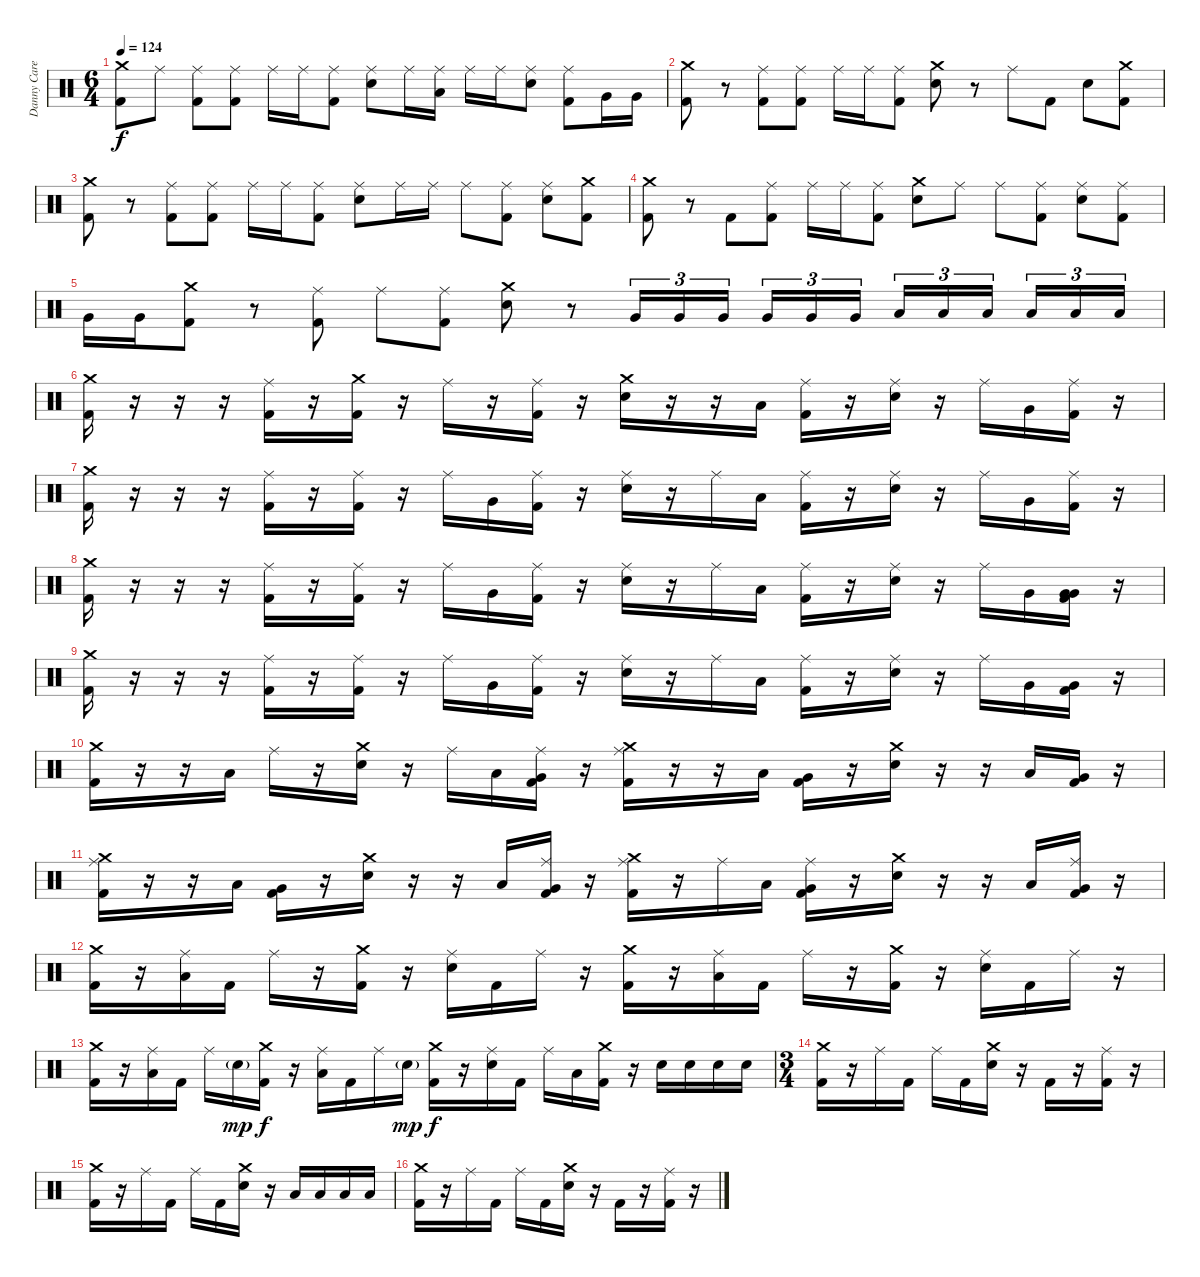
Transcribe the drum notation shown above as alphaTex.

\track ("Danny Carey" "Danny Care") {instrument percussion}
\staff {score}
\articulation defaults
\ts (6 4)
\tempo 124
\clef neutral
\ks c
("Crash medium (hit)" "Kick (hit) 2").8{dy f} "Ride (middle)".8 ("Ride (middle)" "Kick (hit) 2").8 ("Ride (middle)" "Kick (hit) 2").8 "Ride (middle)".16 "Ride (middle)".16 ("Ride (middle)" "Kick (hit) 2").8 ("Ride (middle)" "Electric Snare (hit)").8 "Ride (middle)".16 ("Ride (middle)" "Low Floor Tom (hit)").16 "Ride (middle)".16 "Ride (middle)".16 ("Ride (middle)" "Electric Snare (hit)").8 ("Ride (middle)" "Kick (hit) 2").8 "Very Low Tom (hit)".16 "Very Low Tom (hit)".16 |
("Crash medium (hit)" "Kick (hit) 2").8 r.8 ("Ride (middle)" "Kick (hit) 2").8 ("Ride (middle)" "Kick (hit) 2").8 "Ride (middle)".16 "Ride (middle)".16 ("Ride (middle)" "Kick (hit) 2").8 ("Crash medium (hit)" "Electric Snare (hit)").8 r.8 "Ride (middle)".8 "Kick (hit) 2".8 "Electric Snare (hit)".8 ("Crash medium (hit)" "Kick (hit) 2").8 |
("Crash medium (hit)" "Kick (hit) 2").8 r.8 ("Ride (middle)" "Kick (hit) 2").8 ("Ride (middle)" "Kick (hit) 2").8 "Ride (middle)".16 "Ride (middle)".16 ("Ride (middle)" "Kick (hit) 2").8 ("Ride (middle)" "Electric Snare (hit)").8 "Ride (middle)".16 "Ride (middle)".16 "Ride (middle)".8 ("Ride (middle)" "Kick (hit) 2").8 ("Ride (middle)" "Electric Snare (hit)").8 ("Crash medium (hit)" "Kick (hit) 2").8 |
("Crash medium (hit)" "Kick (hit) 2").8 r.8 "Kick (hit) 2".8 ("Ride (middle)" "Kick (hit) 2").8 "Ride (middle)".16 "Ride (middle)".16 ("Ride (middle)" "Kick (hit) 2").8 ("Crash medium (hit)" "Electric Snare (hit)").8 "Ride (middle)".8 "Ride (middle)".8 ("Ride (middle)" "Kick (hit) 2").8 ("Ride (middle)" "Electric Snare (hit)").8 ("Ride (middle)" "Kick (hit) 2").8 |
"Very Low Tom (hit)".16 "Very Low Tom (hit)".16 ("Crash medium (hit)" "Kick (hit) 2").8 r.8 ("Ride (middle)" "Kick (hit) 2").8 "Ride (middle)".8 ("Ride (middle)" "Kick (hit) 2").8 ("Crash medium (hit)" "Electric Snare (hit)").8 r.8 "Very Low Tom (hit)".16{tu (3 2)} "Very Low Tom (hit)".16{tu (3 2)} "Very Low Tom (hit)".16{tu (3 2)} "Very Low Tom (hit)".16{tu (3 2)} "Very Low Tom (hit)".16{tu (3 2)} "Very Low Tom (hit)".16{tu (3 2)} "Low Floor Tom (hit)".16{tu (3 2)} "Low Floor Tom (hit)".16{tu (3 2)} "Low Floor Tom (hit)".16{tu (3 2)} "Low Floor Tom (hit)".16{tu (3 2)} "Low Floor Tom (hit)".16{tu (3 2)} "Low Floor Tom (hit)".16{tu (3 2)} |
("Crash medium (hit)" "Kick (hit) 2").16 r.16 r.16 r.16 ("Ride (middle)" "Kick (hit) 2").16 r.16 ("Crash medium (hit)" "Kick (hit) 2").16 r.16 "Ride (middle)".16 r.16 ("Ride (middle)" "Kick (hit) 2").16 r.16 ("Crash medium (hit)" "Electric Snare (hit)").16 r.16 r.16 "Low Tom (hit)".16 ("Ride (middle)" "Kick (hit) 2").16 r.16 ("Ride (middle)" "Electric Snare (hit)").16 r.16 "Ride (middle)".16 "Very Low Tom (hit)".16 ("Ride (middle)" "Kick (hit) 2").16 r.16 |
("Crash medium (hit)" "Kick (hit) 2").16 r.16 r.16 r.16 ("Ride (middle)" "Kick (hit) 2").16 r.16 ("Ride (middle)" "Kick (hit) 2").16 r.16 "Ride (middle)".16 "Very Low Tom (hit)".16 ("Ride (middle)" "Kick (hit) 2").16 r.16 ("Ride (middle)" "Electric Snare (hit)").16 r.16 "Ride (middle)".16 "Low Tom (hit)".16 ("Ride (middle)" "Kick (hit) 2").16 r.16 ("Ride (middle)" "Electric Snare (hit)").16 r.16 "Ride (middle)".16 "Very Low Tom (hit)".16 ("Ride (middle)" "Kick (hit) 2").16 r.16 |
("Crash medium (hit)" "Kick (hit) 2").16 r.16 r.16 r.16 ("Ride (middle)" "Kick (hit) 2").16 r.16 ("Ride (middle)" "Kick (hit) 2").16 r.16 "Ride (middle)".16 "Very Low Tom (hit)".16 ("Ride (middle)" "Kick (hit) 2").16 r.16 ("Ride (middle)" "Electric Snare (hit)").16 r.16 "Ride (middle)".16 "Low Tom (hit)".16 ("Ride (middle)" "Kick (hit) 2").16 r.16 ("Ride (middle)" "Electric Snare (hit)").16 r.16 "Ride (middle)".16 "Very Low Tom (hit)".16 ("Very Low Tom (hit)" "Very Low Tom (hit)" "Kick (hit) 2").16 r.16 |
("Crash medium (hit)" "Kick (hit) 2").16 r.16 r.16 r.16 ("Ride (middle)" "Kick (hit) 2").16 r.16 ("Ride (middle)" "Kick (hit) 2").16 r.16 "Ride (middle)".16 "Very Low Tom (hit)".16 ("Ride (middle)" "Kick (hit) 2").16 r.16 ("Ride (middle)" "Electric Snare (hit)").16 r.16 "Ride (middle)".16 "Low Tom (hit)".16 ("Ride (middle)" "Kick (hit) 2").16 r.16 ("Ride (middle)" "Electric Snare (hit)").16 r.16 "Ride (middle)".16 "Very Low Tom (hit)".16 ("Very Low Tom (hit)" "Kick (hit) 2").16 r.16 |
("Crash medium (hit)" "Kick (hit) 2").16 r.16 r.16 "Low Tom (hit)".16 "Ride (middle)".16 r.16 ("Crash medium (hit)" "Electric Snare (hit)").16 r.16 "Ride (middle)".16 "Low Tom (hit)".16 ("Ride (middle)" "Very Low Tom (hit)" "Kick (hit) 2").16 r.16 ("Crash medium (hit)" "Ride (middle)" "Kick (hit) 2").16 r.16 r.16 "Low Tom (hit)".16 ("Very Low Tom (hit)" "Kick (hit) 2").16 r.16 ("Crash medium (hit)" "Electric Snare (hit)").16 r.16 r.16 "Low Tom (hit)".16 ("Very Low Tom (hit)" "Kick (hit) 2").16 r.16 |
("Crash medium (hit)" "Ride (middle)" "Kick (hit) 2").16 r.16 r.16 "Low Tom (hit)".16 ("Very Low Tom (hit)" "Kick (hit) 2").16 r.16 ("Crash medium (hit)" "Electric Snare (hit)").16 r.16 r.16 "Low Tom (hit)".16 ("Ride (middle)" "Very Low Tom (hit)" "Kick (hit) 2").16 r.16 ("Crash medium (hit)" "Ride (middle)" "Kick (hit) 2").16 r.16 "Ride (middle)".16 "Low Tom (hit)".16 ("Ride (middle)" "Very Low Tom (hit)" "Kick (hit) 2").16 r.16 ("Crash medium (hit)" "Electric Snare (hit)").16 r.16 r.16 "Low Tom (hit)".16 ("Ride (middle)" "Very Low Tom (hit)" "Kick (hit) 2").16 r.16 |
("Crash medium (hit)" "Kick (hit) 2").16 r.16 ("Ride (middle)" "Low Tom (hit)").16 "Kick (hit) 2".16 "Ride (middle)".16 r.16 ("Crash medium (hit)" "Kick (hit) 2").16 r.16 ("Ride (middle)" "Electric Snare (hit)").16 "Kick (hit) 2".16 "Ride (middle)".16 r.16 ("Crash medium (hit)" "Kick (hit) 2").16 r.16 ("Ride (middle)" "Low Tom (hit)").16 "Kick (hit) 2".16 "Ride (middle)".16 r.16 ("Crash medium (hit)" "Kick (hit) 2").16 r.16 ("Ride (middle)" "Electric Snare (hit)").16 "Kick (hit) 2".16 "Ride (middle)".16 r.16 |
("Crash medium (hit)" "Kick (hit) 2").16 r.16 ("Ride (middle)" "Low Tom (hit)").16 "Kick (hit) 2".16 "Ride (middle)".16 "Electric Snare (hit)"{g}.16{dy mp} ("Crash medium (hit)" "Kick (hit) 2").16{dy f} r.16 ("Ride (middle)" "Low Tom (hit)").16 "Kick (hit) 2".16 "Ride (middle)".16 "Electric Snare (hit)"{g}.16{dy mp} ("Crash medium (hit)" "Kick (hit) 2").16{dy f} r.16 ("Ride (middle)" "Electric Snare (hit)").16 "Kick (hit) 2".16 "Ride (middle)".16 "Low Tom (hit)".16 ("Crash medium (hit)" "Kick (hit) 2").16 r.16 "Electric Snare (hit)".16 "Electric Snare (hit)".16 "Electric Snare (hit)".16 "Electric Snare (hit)".16 |
\ts (3 4)
("Crash medium (hit)" "Kick (hit) 2").16 r.16 "Ride (middle)".16 "Kick (hit) 2".16 "Ride (middle)".16 "Kick (hit) 2".16 ("Crash medium (hit)" "Electric Snare (hit)").16 r.16 "Kick (hit) 2".16 r.16 ("Ride (middle)" "Kick (hit) 2").16 r.16 |
("Crash medium (hit)" "Kick (hit) 2").16 r.16 "Ride (middle)".16 "Kick (hit) 2".16 "Ride (middle)".16 "Kick (hit) 2".16 ("Crash medium (hit)" "Electric Snare (hit)").16 r.16 "Low Tom (hit)".16 "Low Tom (hit)".16 "Low Tom (hit)".16 "Low Tom (hit)".16 |
("Crash medium (hit)" "Kick (hit) 2").16 r.16 "Ride (middle)".16 "Kick (hit) 2".16 "Ride (middle)".16 "Kick (hit) 2".16 ("Crash medium (hit)" "Electric Snare (hit)").16 r.16 "Kick (hit) 2".16 r.16 ("Ride (middle)" "Kick (hit) 2").16 r.16
